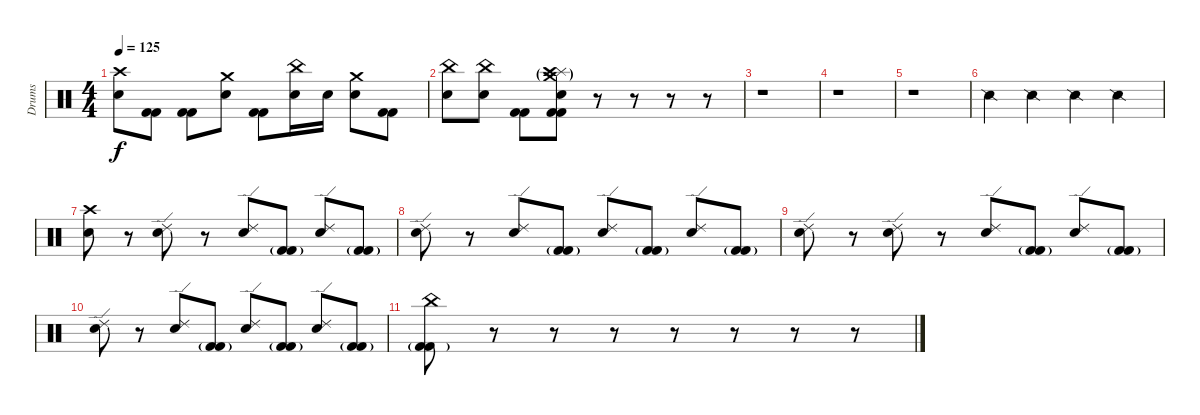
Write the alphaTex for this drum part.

\track ("Drums" "Drums") {instrument percussion}
\staff {score}
\articulation defaults
\ts (4 4)
\tempo 125
\clef neutral
\ks c
("Crash high (hit)" "Electric Snare (hit)").8{dy f} ("Kick (hit) 2" "Kick (hit) 2").8 ("Kick (hit) 2" "Kick (hit) 2").8 ("Crash medium (hit)" "Electric Snare (hit)").8 ("Kick (hit) 2" "Kick (hit) 2").8 ("China (hit)" "Electric Snare (hit)").16 "Electric Snare (hit)".16 ("Crash medium (hit)" "Electric Snare (hit)").8 ("Kick (hit) 2" "Kick (hit) 2").8 |
("China (hit)" "Electric Snare (hit)").8 ("China (hit)" "Electric Snare (hit)").8 ("Kick (hit) 2" "Kick (hit) 2").8 ("Crash medium (hit)"{g} "Splash (hit)"{g} "Crash high (hit)"{g} "Electric Snare (hit)" "Kick (hit) 2" "Kick (hit) 2").8 r.8 r.8 r.8 r.8 |
r.1 |
r.1 |
r.1 |
"Snare (side stick) 2".4 "Snare (side stick) 2".4 "Snare (side stick) 2".4 "Snare (side stick) 2".4 |
("Crash high (hit)" "Electric Snare (hit)").8 r.8 ("Ride (edge) 2" "Electric Snare (hit)").8 r.8 ("Ride (edge) 2" "Electric Snare (hit)").8 ("Kick (hit) 2"{g} "Kick (hit) 2").8 ("Ride (edge) 2" "Electric Snare (hit)").8 ("Kick (hit) 2"{g} "Kick (hit) 2").8 |
("Ride (edge) 2" "Electric Snare (hit)").8 r.8 ("Ride (edge) 2" "Electric Snare (hit)").8 ("Kick (hit) 2"{g} "Kick (hit) 2").8 ("Ride (edge) 2" "Electric Snare (hit)").8 ("Kick (hit) 2"{g} "Kick (hit) 2").8 ("Ride (edge) 2" "Electric Snare (hit)").8 ("Kick (hit) 2"{g} "Kick (hit) 2").8 |
("Ride (edge) 2" "Electric Snare (hit)").8 r.8 ("Ride (edge) 2" "Electric Snare (hit)").8 r.8 ("Ride (edge) 2" "Electric Snare (hit)").8 ("Kick (hit) 2"{g} "Kick (hit) 2").8 ("Ride (edge) 2" "Electric Snare (hit)").8 ("Kick (hit) 2"{g} "Kick (hit) 2").8 |
("Ride (edge) 2" "Electric Snare (hit)").8 r.8 ("Ride (edge) 2" "Electric Snare (hit)").8 ("Kick (hit) 2"{g} "Kick (hit) 2").8 ("Ride (edge) 2" "Electric Snare (hit)").8 ("Kick (hit) 2"{g} "Kick (hit) 2").8 ("Ride (edge) 2" "Electric Snare (hit)").8 ("Kick (hit) 2"{g} "Kick (hit) 2").8 |
("China (hit)" "Kick (hit) 2"{g} "Kick (hit) 2").8 r.8 r.8 r.8 r.8 r.8 r.8 r.8
